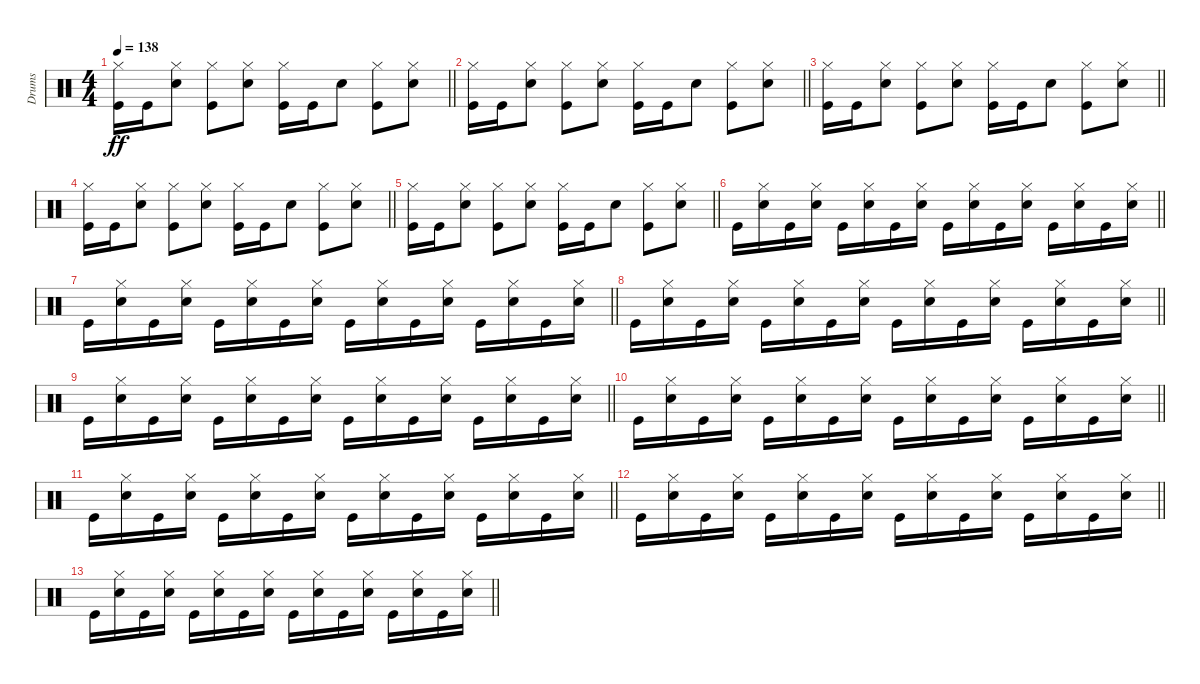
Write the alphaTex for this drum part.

\track ("Drums" "Drums") {instrument percussion}
\staff {score}
\articulation defaults
\ts (4 4)
\tempo 138
\clef neutral
\barLineRight lightlight
\ks c
("Kick (hit)" "Hi-Hat (closed)").16{dy ff} "Kick (hit)".16 ("Snare (hit) 2" "Hi-Hat (closed)").8 ("Kick (hit)" "Hi-Hat (closed)").8 ("Snare (hit) 2" "Hi-Hat (closed)").8 ("Kick (hit)" "Hi-Hat (closed)").16 "Kick (hit)".16 "Snare (hit) 2".8 ("Kick (hit)" "Hi-Hat (closed)").8 ("Snare (hit) 2" "Hi-Hat (closed)").8 |
\barLineRight lightlight
("Kick (hit)" "Hi-Hat (closed)").16 "Kick (hit)".16 ("Snare (hit) 2" "Hi-Hat (closed)").8 ("Kick (hit)" "Hi-Hat (closed)").8 ("Snare (hit) 2" "Hi-Hat (closed)").8 ("Kick (hit)" "Hi-Hat (closed)").16 "Kick (hit)".16 "Snare (hit) 2".8 ("Kick (hit)" "Hi-Hat (closed)").8 ("Snare (hit) 2" "Hi-Hat (closed)").8 |
\barLineRight lightlight
("Kick (hit)" "Hi-Hat (closed)").16 "Kick (hit)".16 ("Snare (hit) 2" "Hi-Hat (closed)").8 ("Kick (hit)" "Hi-Hat (closed)").8 ("Snare (hit) 2" "Hi-Hat (closed)").8 ("Kick (hit)" "Hi-Hat (closed)").16 "Kick (hit)".16 "Snare (hit) 2".8 ("Kick (hit)" "Hi-Hat (closed)").8 ("Snare (hit) 2" "Hi-Hat (closed)").8 |
\barLineRight lightlight
("Kick (hit)" "Hi-Hat (closed)").16 "Kick (hit)".16 ("Snare (hit) 2" "Hi-Hat (closed)").8 ("Kick (hit)" "Hi-Hat (closed)").8 ("Snare (hit) 2" "Hi-Hat (closed)").8 ("Kick (hit)" "Hi-Hat (closed)").16 "Kick (hit)".16 "Snare (hit) 2".8 ("Kick (hit)" "Hi-Hat (closed)").8 ("Snare (hit) 2" "Hi-Hat (closed)").8 |
\barLineRight lightlight
("Kick (hit)" "Hi-Hat (closed)").16 "Kick (hit)".16 ("Snare (hit) 2" "Hi-Hat (closed)").8 ("Kick (hit)" "Hi-Hat (closed)").8 ("Snare (hit) 2" "Hi-Hat (closed)").8 ("Kick (hit)" "Hi-Hat (closed)").16 "Kick (hit)".16 "Snare (hit) 2".8 ("Kick (hit)" "Hi-Hat (closed)").8 ("Snare (hit) 2" "Hi-Hat (closed)").8 |
\barLineRight lightlight "Kick (hit)".16
("Snare (hit) 2" "Hi-Hat (closed)").16 "Kick (hit)".16 ("Snare (hit) 2" "Hi-Hat (closed)").16 "Kick (hit)".16 ("Snare (hit) 2" "Hi-Hat (closed)").16 "Kick (hit)".16 ("Snare (hit) 2" "Hi-Hat (closed)").16 "Kick (hit)".16 ("Snare (hit) 2" "Hi-Hat (closed)").16 "Kick (hit)".16 ("Snare (hit) 2" "Hi-Hat (closed)").16 "Kick (hit)".16 ("Snare (hit) 2" "Hi-Hat (closed)").16 "Kick (hit)".16 ("Snare (hit) 2" "Hi-Hat (closed)").16 |
\barLineRight lightlight "Kick (hit)".16
("Snare (hit) 2" "Hi-Hat (closed)").16 "Kick (hit)".16 ("Snare (hit) 2" "Hi-Hat (closed)").16 "Kick (hit)".16 ("Snare (hit) 2" "Hi-Hat (closed)").16 "Kick (hit)".16 ("Snare (hit) 2" "Hi-Hat (closed)").16 "Kick (hit)".16 ("Snare (hit) 2" "Hi-Hat (closed)").16 "Kick (hit)".16 ("Snare (hit) 2" "Hi-Hat (closed)").16 "Kick (hit)".16 ("Snare (hit) 2" "Hi-Hat (closed)").16 "Kick (hit)".16 ("Snare (hit) 2" "Hi-Hat (closed)").16 |
\barLineRight lightlight "Kick (hit)".16
("Snare (hit) 2" "Hi-Hat (closed)").16 "Kick (hit)".16 ("Snare (hit) 2" "Hi-Hat (closed)").16 "Kick (hit)".16 ("Snare (hit) 2" "Hi-Hat (closed)").16 "Kick (hit)".16 ("Snare (hit) 2" "Hi-Hat (closed)").16 "Kick (hit)".16 ("Snare (hit) 2" "Hi-Hat (closed)").16 "Kick (hit)".16 ("Snare (hit) 2" "Hi-Hat (closed)").16 "Kick (hit)".16 ("Snare (hit) 2" "Hi-Hat (closed)").16 "Kick (hit)".16 ("Snare (hit) 2" "Hi-Hat (closed)").16 |
\barLineRight lightlight "Kick (hit)".16
("Snare (hit) 2" "Hi-Hat (closed)").16 "Kick (hit)".16 ("Snare (hit) 2" "Hi-Hat (closed)").16 "Kick (hit)".16 ("Snare (hit) 2" "Hi-Hat (closed)").16 "Kick (hit)".16 ("Snare (hit) 2" "Hi-Hat (closed)").16 "Kick (hit)".16 ("Snare (hit) 2" "Hi-Hat (closed)").16 "Kick (hit)".16 ("Snare (hit) 2" "Hi-Hat (closed)").16 "Kick (hit)".16 ("Snare (hit) 2" "Hi-Hat (closed)").16 "Kick (hit)".16 ("Snare (hit) 2" "Hi-Hat (closed)").16 |
\barLineRight lightlight "Kick (hit)".16
("Snare (hit) 2" "Hi-Hat (closed)").16 "Kick (hit)".16 ("Snare (hit) 2" "Hi-Hat (closed)").16 "Kick (hit)".16 ("Snare (hit) 2" "Hi-Hat (closed)").16 "Kick (hit)".16 ("Snare (hit) 2" "Hi-Hat (closed)").16 "Kick (hit)".16 ("Snare (hit) 2" "Hi-Hat (closed)").16 "Kick (hit)".16 ("Snare (hit) 2" "Hi-Hat (closed)").16 "Kick (hit)".16 ("Snare (hit) 2" "Hi-Hat (closed)").16 "Kick (hit)".16 ("Snare (hit) 2" "Hi-Hat (closed)").16 |
\barLineRight lightlight "Kick (hit)".16
("Snare (hit) 2" "Hi-Hat (closed)").16 "Kick (hit)".16 ("Snare (hit) 2" "Hi-Hat (closed)").16 "Kick (hit)".16 ("Snare (hit) 2" "Hi-Hat (closed)").16 "Kick (hit)".16 ("Snare (hit) 2" "Hi-Hat (closed)").16 "Kick (hit)".16 ("Snare (hit) 2" "Hi-Hat (closed)").16 "Kick (hit)".16 ("Snare (hit) 2" "Hi-Hat (closed)").16 "Kick (hit)".16 ("Snare (hit) 2" "Hi-Hat (closed)").16 "Kick (hit)".16 ("Snare (hit) 2" "Hi-Hat (closed)").16 |
\barLineRight lightlight "Kick (hit)".16
("Snare (hit) 2" "Hi-Hat (closed)").16 "Kick (hit)".16 ("Snare (hit) 2" "Hi-Hat (closed)").16 "Kick (hit)".16 ("Snare (hit) 2" "Hi-Hat (closed)").16 "Kick (hit)".16 ("Snare (hit) 2" "Hi-Hat (closed)").16 "Kick (hit)".16 ("Snare (hit) 2" "Hi-Hat (closed)").16 "Kick (hit)".16 ("Snare (hit) 2" "Hi-Hat (closed)").16 "Kick (hit)".16 ("Snare (hit) 2" "Hi-Hat (closed)").16 "Kick (hit)".16 ("Snare (hit) 2" "Hi-Hat (closed)").16 |
\barLineRight lightlight "Kick (hit)".16
("Snare (hit) 2" "Hi-Hat (closed)").16 "Kick (hit)".16 ("Snare (hit) 2" "Hi-Hat (closed)").16 "Kick (hit)".16 ("Snare (hit) 2" "Hi-Hat (closed)").16 "Kick (hit)".16 ("Snare (hit) 2" "Hi-Hat (closed)").16 "Kick (hit)".16 ("Snare (hit) 2" "Hi-Hat (closed)").16 "Kick (hit)".16 ("Snare (hit) 2" "Hi-Hat (closed)").16 "Kick (hit)".16 ("Snare (hit) 2" "Hi-Hat (closed)").16 "Kick (hit)".16 ("Snare (hit) 2" "Hi-Hat (closed)").16
